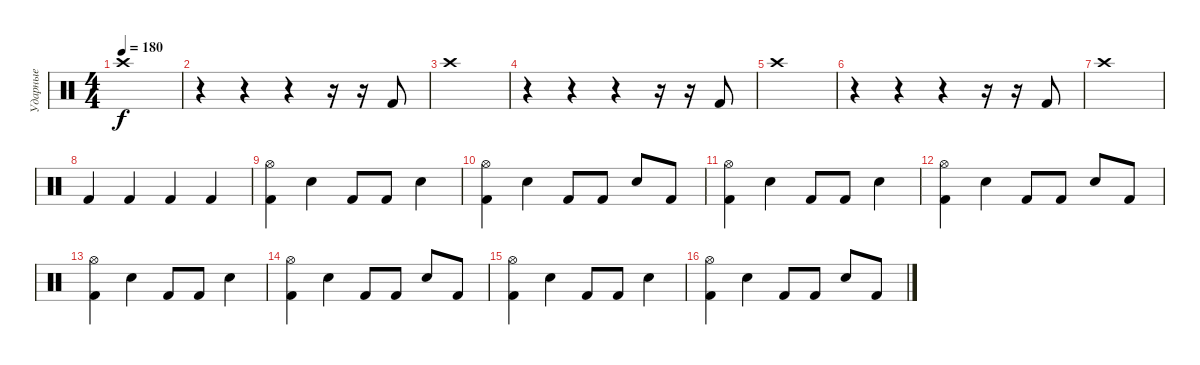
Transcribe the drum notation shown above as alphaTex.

\track ("Ударные" "Ударные") {instrument percussion}
\staff
\articulation defaults
\ts (4 4)
\tempo 180
\clef neutral
\ks c "Crash high (hit)".1{dy f}
|
r.4 r.4 r.4 r.16 r.16 "Kick (hit) 2".8 |
"Crash high (hit)".1 |
r.4 r.4 r.4 r.16 r.16 "Kick (hit) 2".8 |
"Crash high (hit)".1 |
r.4 r.4 r.4 r.16 r.16 "Kick (hit) 2".8 |
"Crash high (hit)".1 |
"Kick (hit) 2".4 "Kick (hit) 2".4 "Kick (hit) 2".4 "Kick (hit) 2".4 |
("Kick (hit) 2" "Hi-Hat (open)").4 "Electric Snare (hit)".4 "Kick (hit) 2".8 "Kick (hit) 2".8 "Electric Snare (hit)".4 |
("Kick (hit) 2" "Hi-Hat (open)").4 "Electric Snare (hit)".4 "Kick (hit) 2".8 "Kick (hit) 2".8 "Electric Snare (hit)".8 "Kick (hit) 2".8 |
("Kick (hit) 2" "Hi-Hat (open)").4 "Electric Snare (hit)".4 "Kick (hit) 2".8 "Kick (hit) 2".8 "Electric Snare (hit)".4 |
("Kick (hit) 2" "Hi-Hat (open)").4 "Electric Snare (hit)".4 "Kick (hit) 2".8 "Kick (hit) 2".8 "Electric Snare (hit)".8 "Kick (hit) 2".8 |
("Kick (hit) 2" "Hi-Hat (open)").4 "Electric Snare (hit)".4 "Kick (hit) 2".8 "Kick (hit) 2".8 "Electric Snare (hit)".4 |
("Kick (hit) 2" "Hi-Hat (open)").4 "Electric Snare (hit)".4 "Kick (hit) 2".8 "Kick (hit) 2".8 "Electric Snare (hit)".8 "Kick (hit) 2".8 |
("Kick (hit) 2" "Hi-Hat (open)").4 "Electric Snare (hit)".4 "Kick (hit) 2".8 "Kick (hit) 2".8 "Electric Snare (hit)".4 |
("Kick (hit) 2" "Hi-Hat (open)").4 "Electric Snare (hit)".4 "Kick (hit) 2".8 "Kick (hit) 2".8 "Electric Snare (hit)".8 "Kick (hit) 2".8
